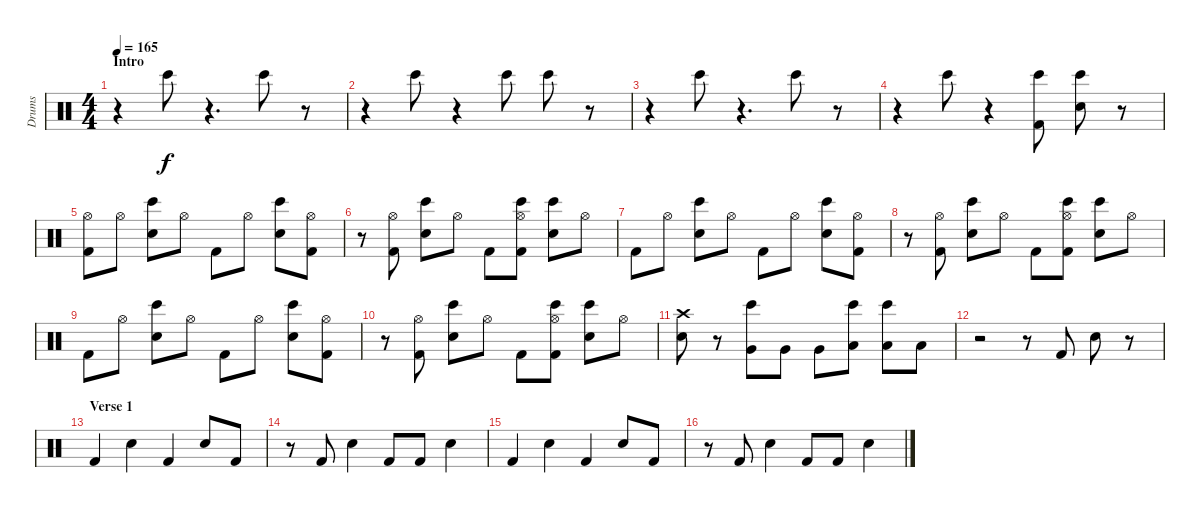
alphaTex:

\track ("Drums" "Drums") {instrument percussion}
\staff {score}
\articulation defaults
\ts (4 4)
\section ("" "Intro")
\tempo 165
\clef neutral
\ks c
r.4{dy f} "Bongo High (hit)".8 r.4{d} "Bongo High (hit)".8 r.8 |
r.4 "Bongo High (hit)".8 r.4 "Bongo High (hit)".8 "Bongo High (hit)".8 r.8 |
r.4 "Bongo High (hit)".8 r.4{d} "Bongo High (hit)".8 r.8 |
r.4 "Bongo High (hit)".8 r.4 ("Bongo High (hit)" "Kick (hit) 2").8 ("Bongo High (hit)" "Electric Snare (hit)").8 r.8 |
("Hi-Hat (open)" "Kick (hit) 2").8 "Hi-Hat (open)".8 ("Electric Snare (hit)" "Bongo High (hit)").8 "Hi-Hat (open)".8 "Kick (hit) 2".8 "Hi-Hat (open)".8 ("Electric Snare (hit)" "Bongo High (hit)").8 ("Hi-Hat (open)" "Kick (hit) 2").8 |
r.8 ("Hi-Hat (open)" "Kick (hit) 2").8 ("Electric Snare (hit)" "Bongo High (hit)").8 "Hi-Hat (open)".8 "Kick (hit) 2".8 ("Hi-Hat (open)" "Kick (hit) 2" "Bongo High (hit)").8 ("Electric Snare (hit)" "Bongo High (hit)").8 "Hi-Hat (open)".8 |
"Kick (hit) 2".8 "Hi-Hat (open)".8 ("Electric Snare (hit)" "Bongo High (hit)").8 "Hi-Hat (open)".8 "Kick (hit) 2".8 "Hi-Hat (open)".8 ("Electric Snare (hit)" "Bongo High (hit)").8 ("Hi-Hat (open)" "Kick (hit) 2").8 |
r.8 ("Hi-Hat (open)" "Kick (hit) 2").8 ("Electric Snare (hit)" "Bongo High (hit)").8 "Hi-Hat (open)".8 "Kick (hit) 2".8 ("Hi-Hat (open)" "Kick (hit) 2" "Bongo High (hit)").8 ("Electric Snare (hit)" "Bongo High (hit)").8 "Hi-Hat (open)".8 |
"Kick (hit) 2".8 "Hi-Hat (open)".8 ("Electric Snare (hit)" "Bongo High (hit)").8 "Hi-Hat (open)".8 "Kick (hit) 2".8 "Hi-Hat (open)".8 ("Electric Snare (hit)" "Bongo High (hit)").8 ("Hi-Hat (open)" "Kick (hit) 2").8 |
r.8 ("Hi-Hat (open)" "Kick (hit) 2").8 ("Electric Snare (hit)" "Bongo High (hit)").8 "Hi-Hat (open)".8 "Kick (hit) 2".8 ("Hi-Hat (open)" "Kick (hit) 2" "Bongo High (hit)").8 ("Electric Snare (hit)" "Bongo High (hit)").8 "Hi-Hat (open)".8 |
("Crash high (hit)" "Electric Snare (hit)").8 r.8 ("Very Low Tom (hit)" "Bongo High (hit)").8 "Very Low Tom (hit)".8 "Very Low Tom (hit)".8 ("Low Floor Tom (hit)" "Bongo High (hit)").8 ("Low Floor Tom (hit)" "Bongo High (hit)").8 "Low Floor Tom (hit)".8 |
r.2 r.8 "Kick (hit) 2".8 "Electric Snare (hit)".8 r.8 |
\section ("" "Verse 1")
"Kick (hit) 2".4 "Electric Snare (hit)".4 "Kick (hit) 2".4 "Electric Snare (hit)".8 "Kick (hit) 2".8 |
r.8 "Kick (hit) 2".8 "Electric Snare (hit)".4 "Kick (hit) 2".8 "Kick (hit) 2".8 "Electric Snare (hit)".4 |
"Kick (hit) 2".4 "Electric Snare (hit)".4 "Kick (hit) 2".4 "Electric Snare (hit)".8 "Kick (hit) 2".8 |
r.8 "Kick (hit) 2".8 "Electric Snare (hit)".4 "Kick (hit) 2".8 "Kick (hit) 2".8 "Electric Snare (hit)".4
